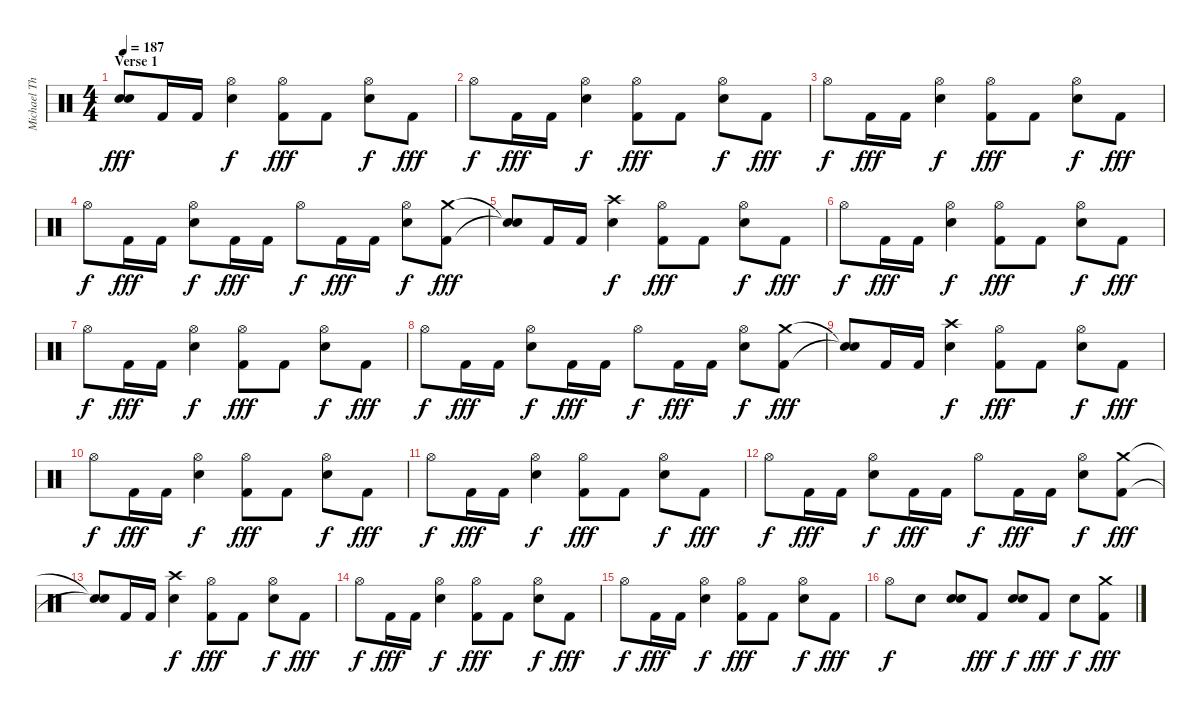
\track ("Michael Thomas" "Michael Th") {instrument percussion}
\staff {score}
\articulation defaults
\ts (4 4)
\section ("" "Verse 1")
\tempo 187
\clef neutral
\ks c
("Snare (hit)"{t} "Snare (hit)"{t}).8{dy fff} "Kick (hit) 2".16 "Kick (hit) 2".16 ("Hi-Hat (open)" "Electric Snare (hit)").4{dy f} ("Hi-Hat (open)" "Kick (hit) 2").8{dy fff} "Kick (hit) 2".8 ("Hi-Hat (open)" "Electric Snare (hit)").8{dy f} "Kick (hit) 2".8{dy fff} |
"Hi-Hat (open)".8{dy f} "Kick (hit) 2".16{dy fff} "Kick (hit) 2".16 ("Hi-Hat (open)" "Electric Snare (hit)").4{dy f} ("Hi-Hat (open)" "Kick (hit) 2").8{dy fff} "Kick (hit) 2".8 ("Hi-Hat (open)" "Electric Snare (hit)").8{dy f} "Kick (hit) 2".8{dy fff} |
"Hi-Hat (open)".8{dy f} "Kick (hit) 2".16{dy fff} "Kick (hit) 2".16 ("Hi-Hat (open)" "Electric Snare (hit)").4{dy f} ("Hi-Hat (open)" "Kick (hit) 2").8{dy fff} "Kick (hit) 2".8 ("Hi-Hat (open)" "Electric Snare (hit)").8{dy f} "Kick (hit) 2".8{dy fff} |
"Hi-Hat (open)".8{dy f} "Kick (hit) 2".16{dy fff} "Kick (hit) 2".16 ("Hi-Hat (open)" "Electric Snare (hit)").8{dy f} "Kick (hit) 2".16{dy fff} "Kick (hit) 2".16 "Hi-Hat (open)".8{dy f} "Kick (hit) 2".16{dy fff} "Kick (hit) 2".16 ("Hi-Hat (open)" "Electric Snare (hit)").8{dy f} ("Crash medium (hit)" "Kick (hit) 2").8{dy fff} |
("Snare (hit)"{t} "Snare (hit)"{t}).8 "Kick (hit) 2".16 "Kick (hit) 2".16 ("Crash high (hit)" "Electric Snare (hit)").4{dy f} ("Hi-Hat (open)" "Kick (hit) 2").8{dy fff} "Kick (hit) 2".8 ("Hi-Hat (open)" "Electric Snare (hit)").8{dy f} "Kick (hit) 2".8{dy fff} |
"Hi-Hat (open)".8{dy f} "Kick (hit) 2".16{dy fff} "Kick (hit) 2".16 ("Hi-Hat (open)" "Electric Snare (hit)").4{dy f} ("Hi-Hat (open)" "Kick (hit) 2").8{dy fff} "Kick (hit) 2".8 ("Hi-Hat (open)" "Electric Snare (hit)").8{dy f} "Kick (hit) 2".8{dy fff} |
"Hi-Hat (open)".8{dy f} "Kick (hit) 2".16{dy fff} "Kick (hit) 2".16 ("Hi-Hat (open)" "Electric Snare (hit)").4{dy f} ("Hi-Hat (open)" "Kick (hit) 2").8{dy fff} "Kick (hit) 2".8 ("Hi-Hat (open)" "Electric Snare (hit)").8{dy f} "Kick (hit) 2".8{dy fff} |
"Hi-Hat (open)".8{dy f} "Kick (hit) 2".16{dy fff} "Kick (hit) 2".16 ("Hi-Hat (open)" "Electric Snare (hit)").8{dy f} "Kick (hit) 2".16{dy fff} "Kick (hit) 2".16 "Hi-Hat (open)".8{dy f} "Kick (hit) 2".16{dy fff} "Kick (hit) 2".16 ("Hi-Hat (open)" "Electric Snare (hit)").8{dy f} ("Crash medium (hit)" "Kick (hit) 2").8{dy fff} |
("Snare (hit)"{t} "Snare (hit)"{t}).8 "Kick (hit) 2".16 "Kick (hit) 2".16 ("Crash high (hit)" "Electric Snare (hit)").4{dy f} ("Hi-Hat (open)" "Kick (hit) 2").8{dy fff} "Kick (hit) 2".8 ("Hi-Hat (open)" "Electric Snare (hit)").8{dy f} "Kick (hit) 2".8{dy fff} |
"Hi-Hat (open)".8{dy f} "Kick (hit) 2".16{dy fff} "Kick (hit) 2".16 ("Hi-Hat (open)" "Electric Snare (hit)").4{dy f} ("Hi-Hat (open)" "Kick (hit) 2").8{dy fff} "Kick (hit) 2".8 ("Hi-Hat (open)" "Electric Snare (hit)").8{dy f} "Kick (hit) 2".8{dy fff} |
"Hi-Hat (open)".8{dy f} "Kick (hit) 2".16{dy fff} "Kick (hit) 2".16 ("Hi-Hat (open)" "Electric Snare (hit)").4{dy f} ("Hi-Hat (open)" "Kick (hit) 2").8{dy fff} "Kick (hit) 2".8 ("Hi-Hat (open)" "Electric Snare (hit)").8{dy f} "Kick (hit) 2".8{dy fff} |
"Hi-Hat (open)".8{dy f} "Kick (hit) 2".16{dy fff} "Kick (hit) 2".16 ("Hi-Hat (open)" "Electric Snare (hit)").8{dy f} "Kick (hit) 2".16{dy fff} "Kick (hit) 2".16 "Hi-Hat (open)".8{dy f} "Kick (hit) 2".16{dy fff} "Kick (hit) 2".16 ("Hi-Hat (open)" "Electric Snare (hit)").8{dy f} ("Crash medium (hit)" "Kick (hit) 2").8{dy fff} |
("Snare (hit)"{t} "Snare (hit)"{t}).8 "Kick (hit) 2".16 "Kick (hit) 2".16 ("Crash high (hit)" "Electric Snare (hit)").4{dy f} ("Hi-Hat (open)" "Kick (hit) 2").8{dy fff} "Kick (hit) 2".8 ("Hi-Hat (open)" "Electric Snare (hit)").8{dy f} "Kick (hit) 2".8{dy fff} |
"Hi-Hat (open)".8{dy f} "Kick (hit) 2".16{dy fff} "Kick (hit) 2".16 ("Hi-Hat (open)" "Electric Snare (hit)").4{dy f} ("Hi-Hat (open)" "Kick (hit) 2").8{dy fff} "Kick (hit) 2".8 ("Hi-Hat (open)" "Electric Snare (hit)").8{dy f} "Kick (hit) 2".8{dy fff} |
"Hi-Hat (open)".8{dy f} "Kick (hit) 2".16{dy fff} "Kick (hit) 2".16 ("Hi-Hat (open)" "Electric Snare (hit)").4{dy f} ("Hi-Hat (open)" "Kick (hit) 2").8{dy fff} "Kick (hit) 2".8 ("Hi-Hat (open)" "Electric Snare (hit)").8{dy f} "Kick (hit) 2".8{dy fff} |
"Hi-Hat (open)".8{dy f} "Electric Snare (hit)".8 ("Electric Snare (hit)" "Electric Snare (hit)").8{bd 120} "Kick (hit) 2".8{dy fff} ("Electric Snare (hit)" "Electric Snare (hit)").8{bd 120 dy f} "Kick (hit) 2".8{dy fff} "Electric Snare (hit)".8{dy f} ("Crash medium (hit)" "Kick (hit) 2").8{dy fff}
